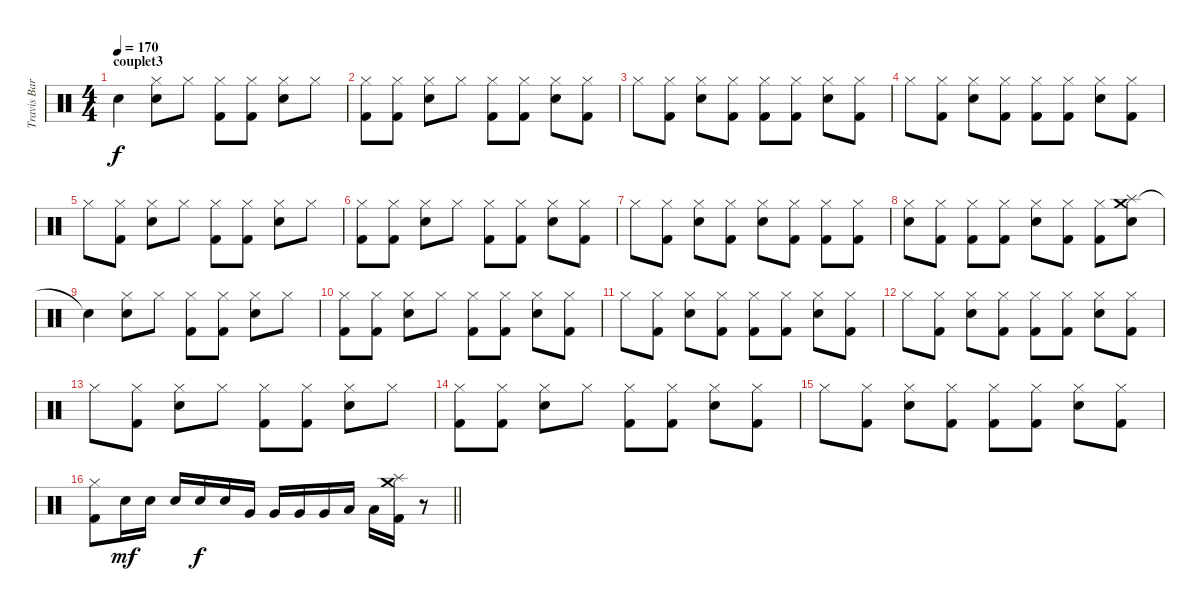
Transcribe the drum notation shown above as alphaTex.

\track ("Travis Barker" "Travis Bar") {instrument percussion}
\staff {score}
\articulation defaults
\ts (4 4)
\section ("" "couplet3")
\tempo 170
\clef neutral
\ks c "Snare (hit)"{t}.4{dy f}
("Hi-Hat (closed)" "Electric Snare (hit)").8 "Hi-Hat (closed)".8 ("Hi-Hat (closed)" "Kick (hit) 2").8 ("Hi-Hat (closed)" "Kick (hit) 2").8 ("Hi-Hat (closed)" "Electric Snare (hit)").8 "Hi-Hat (closed)".8 |
("Hi-Hat (closed)" "Kick (hit) 2").8 ("Hi-Hat (closed)" "Kick (hit) 2").8 ("Hi-Hat (closed)" "Electric Snare (hit)").8 "Hi-Hat (closed)".8 ("Hi-Hat (closed)" "Kick (hit) 2").8 ("Hi-Hat (closed)" "Kick (hit) 2").8 ("Hi-Hat (closed)" "Electric Snare (hit)").8 ("Hi-Hat (closed)" "Kick (hit) 2").8 |
"Hi-Hat (closed)".8 ("Hi-Hat (closed)" "Kick (hit) 2").8 ("Hi-Hat (closed)" "Electric Snare (hit)").8 ("Hi-Hat (closed)" "Kick (hit) 2").8 ("Hi-Hat (closed)" "Kick (hit) 2").8 ("Hi-Hat (closed)" "Kick (hit) 2").8 ("Hi-Hat (closed)" "Electric Snare (hit)").8 ("Hi-Hat (closed)" "Kick (hit) 2").8 |
"Hi-Hat (closed)".8 ("Hi-Hat (closed)" "Kick (hit) 2").8 ("Hi-Hat (closed)" "Electric Snare (hit)").8 ("Hi-Hat (closed)" "Kick (hit) 2").8 ("Hi-Hat (closed)" "Kick (hit) 2").8 ("Hi-Hat (closed)" "Kick (hit) 2").8 ("Hi-Hat (closed)" "Electric Snare (hit)").8 ("Hi-Hat (closed)" "Kick (hit) 2").8 |
"Hi-Hat (closed)".8 ("Hi-Hat (closed)" "Kick (hit) 2").8 ("Hi-Hat (closed)" "Electric Snare (hit)").8 "Hi-Hat (closed)".8 ("Hi-Hat (closed)" "Kick (hit) 2").8 ("Hi-Hat (closed)" "Kick (hit) 2").8 ("Hi-Hat (closed)" "Electric Snare (hit)").8 "Hi-Hat (closed)".8 |
("Hi-Hat (closed)" "Kick (hit) 2").8 ("Hi-Hat (closed)" "Kick (hit) 2").8 ("Hi-Hat (closed)" "Electric Snare (hit)").8 "Hi-Hat (closed)".8 ("Hi-Hat (closed)" "Kick (hit) 2").8 ("Hi-Hat (closed)" "Kick (hit) 2").8 ("Hi-Hat (closed)" "Electric Snare (hit)").8 ("Hi-Hat (closed)" "Kick (hit) 2").8 |
"Hi-Hat (closed)".8 ("Hi-Hat (closed)" "Kick (hit) 2").8 ("Hi-Hat (closed)" "Electric Snare (hit)").8 ("Hi-Hat (closed)" "Kick (hit) 2").8 ("Hi-Hat (closed)" "Electric Snare (hit)").8 ("Hi-Hat (closed)" "Kick (hit) 2").8 ("Hi-Hat (closed)" "Kick (hit) 2").8 ("Hi-Hat (closed)" "Kick (hit) 2").8 |
("Hi-Hat (closed)" "Electric Snare (hit)").8 ("Hi-Hat (closed)" "Kick (hit) 2").8 ("Hi-Hat (closed)" "Kick (hit) 2").8 ("Hi-Hat (closed)" "Kick (hit) 2").8 ("Hi-Hat (closed)" "Electric Snare (hit)").8 ("Hi-Hat (closed)" "Kick (hit) 2").8 ("Hi-Hat (closed)" "Kick (hit) 2").8 ("Crash medium (hit)" "Electric Snare (hit)" "Splash (hit)").8 |
"Snare (hit)"{t}.4 ("Hi-Hat (closed)" "Electric Snare (hit)").8 "Hi-Hat (closed)".8 ("Hi-Hat (closed)" "Kick (hit) 2").8 ("Hi-Hat (closed)" "Kick (hit) 2").8 ("Hi-Hat (closed)" "Electric Snare (hit)").8 "Hi-Hat (closed)".8 |
("Hi-Hat (closed)" "Kick (hit) 2").8 ("Hi-Hat (closed)" "Kick (hit) 2").8 ("Hi-Hat (closed)" "Electric Snare (hit)").8 "Hi-Hat (closed)".8 ("Hi-Hat (closed)" "Kick (hit) 2").8 ("Hi-Hat (closed)" "Kick (hit) 2").8 ("Hi-Hat (closed)" "Electric Snare (hit)").8 ("Hi-Hat (closed)" "Kick (hit) 2").8 |
"Hi-Hat (closed)".8 ("Hi-Hat (closed)" "Kick (hit) 2").8 ("Hi-Hat (closed)" "Electric Snare (hit)").8 ("Hi-Hat (closed)" "Kick (hit) 2").8 ("Hi-Hat (closed)" "Kick (hit) 2").8 ("Hi-Hat (closed)" "Kick (hit) 2").8 ("Hi-Hat (closed)" "Electric Snare (hit)").8 ("Hi-Hat (closed)" "Kick (hit) 2").8 |
"Hi-Hat (closed)".8 ("Hi-Hat (closed)" "Kick (hit) 2").8 ("Hi-Hat (closed)" "Electric Snare (hit)").8 ("Hi-Hat (closed)" "Kick (hit) 2").8 ("Hi-Hat (closed)" "Kick (hit) 2").8 ("Hi-Hat (closed)" "Kick (hit) 2").8 ("Hi-Hat (closed)" "Electric Snare (hit)").8 ("Hi-Hat (closed)" "Kick (hit) 2").8 |
"Hi-Hat (closed)".8 ("Hi-Hat (closed)" "Kick (hit) 2").8 ("Hi-Hat (closed)" "Electric Snare (hit)").8 "Hi-Hat (closed)".8 ("Hi-Hat (closed)" "Kick (hit) 2").8 ("Hi-Hat (closed)" "Kick (hit) 2").8 ("Hi-Hat (closed)" "Electric Snare (hit)").8 "Hi-Hat (closed)".8 |
("Hi-Hat (closed)" "Kick (hit) 2").8 ("Hi-Hat (closed)" "Kick (hit) 2").8 ("Hi-Hat (closed)" "Electric Snare (hit)").8 "Hi-Hat (closed)".8 ("Hi-Hat (closed)" "Kick (hit) 2").8 ("Hi-Hat (closed)" "Kick (hit) 2").8 ("Hi-Hat (closed)" "Electric Snare (hit)").8 ("Hi-Hat (closed)" "Kick (hit) 2").8 |
"Hi-Hat (closed)".8 ("Hi-Hat (closed)" "Kick (hit) 2").8 ("Hi-Hat (closed)" "Electric Snare (hit)").8 ("Hi-Hat (closed)" "Kick (hit) 2").8 ("Hi-Hat (closed)" "Kick (hit) 2").8 ("Hi-Hat (closed)" "Kick (hit) 2").8 ("Hi-Hat (closed)" "Electric Snare (hit)").8 ("Hi-Hat (closed)" "Kick (hit) 2").8 |
\barLineRight lightlight
("Hi-Hat (closed)" "Kick (hit) 2").8 "Electric Snare (hit)".16{dy mf} "Electric Snare (hit)".16 "Electric Snare (hit)".16 "Electric Snare (hit)".16{dy f} "Electric Snare (hit)".16 "Very Low Tom (hit)".16 "Very Low Tom (hit)".16 "Very Low Tom (hit)".16 "Very Low Tom (hit)".16 "Low Floor Tom (hit)".16 "Low Floor Tom (hit)".16 ("Crash medium (hit)" "Kick (hit) 2" "Splash (hit)").16 r.8
